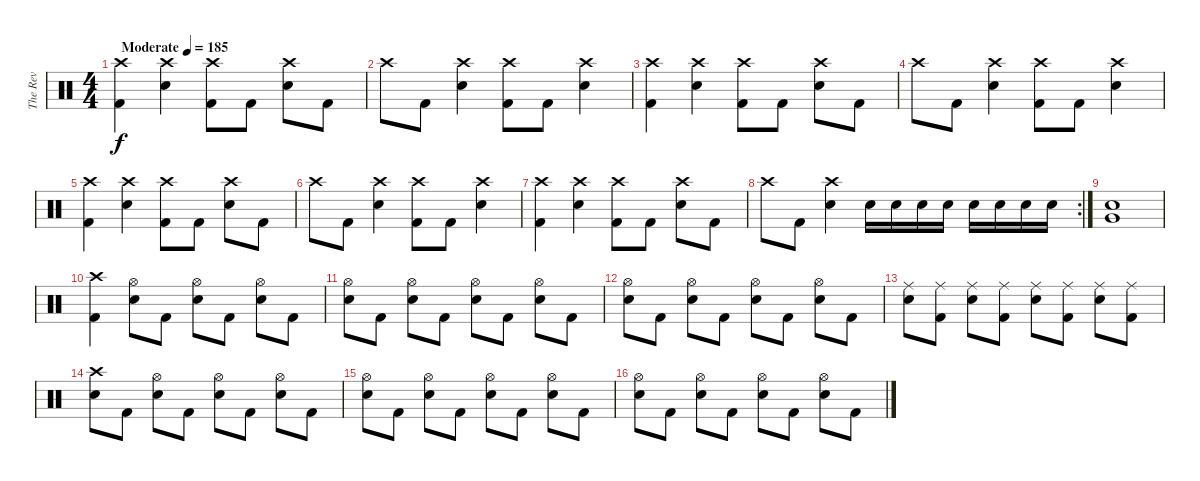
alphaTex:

\track ("The Rev" "The Rev") {instrument percussion}
\staff {score}
\articulation defaults
\ts (4 4)
\tempo (185 "Moderate")
\clef neutral
\ks c
("Crash high (hit)" "Kick (hit) 2").4{dy f} ("Crash high (hit)" "Electric Snare (hit)").4 ("Crash high (hit)" "Kick (hit) 2").8 "Kick (hit) 2".8 ("Crash high (hit)" "Electric Snare (hit)").8 "Kick (hit) 2".8 |
"Crash high (hit)".8 "Kick (hit) 2".8 ("Crash high (hit)" "Electric Snare (hit)").4 ("Crash high (hit)" "Kick (hit) 2").8 "Kick (hit) 2".8 ("Crash high (hit)" "Electric Snare (hit)").4 |
("Crash high (hit)" "Kick (hit) 2").4 ("Crash high (hit)" "Electric Snare (hit)").4 ("Crash high (hit)" "Kick (hit) 2").8 "Kick (hit) 2".8 ("Crash high (hit)" "Electric Snare (hit)").8 "Kick (hit) 2".8 |
"Crash high (hit)".8 "Kick (hit) 2".8 ("Crash high (hit)" "Electric Snare (hit)").4 ("Crash high (hit)" "Kick (hit) 2").8 "Kick (hit) 2".8 ("Crash high (hit)" "Electric Snare (hit)").4 |
("Crash high (hit)" "Kick (hit) 2").4 ("Crash high (hit)" "Electric Snare (hit)").4 ("Crash high (hit)" "Kick (hit) 2").8 "Kick (hit) 2".8 ("Crash high (hit)" "Electric Snare (hit)").8 "Kick (hit) 2".8 |
"Crash high (hit)".8 "Kick (hit) 2".8 ("Crash high (hit)" "Electric Snare (hit)").4 ("Crash high (hit)" "Kick (hit) 2").8 "Kick (hit) 2".8 ("Crash high (hit)" "Electric Snare (hit)").4 |
("Crash high (hit)" "Kick (hit) 2").4 ("Crash high (hit)" "Electric Snare (hit)").4 ("Crash high (hit)" "Kick (hit) 2").8 "Kick (hit) 2".8 ("Crash high (hit)" "Electric Snare (hit)").8 "Kick (hit) 2".8 |
\rc 2 "Crash high (hit)".8 "Kick (hit) 2".8
("Crash high (hit)" "Electric Snare (hit)").4 "Electric Snare (hit)".16 "Electric Snare (hit)".16 "Electric Snare (hit)".16 "Electric Snare (hit)".16 "Electric Snare (hit)".16 "Electric Snare (hit)".16 "Electric Snare (hit)".16 "Electric Snare (hit)".16 |
("Very Low Tom (hit)" "Electric Snare (hit)").1 |
("Crash high (hit)" "Kick (hit) 2").4 ("Hi-Hat (open)" "Electric Snare (hit)").8 "Kick (hit) 2".8 ("Hi-Hat (open)" "Electric Snare (hit)").8 "Kick (hit) 2".8 ("Hi-Hat (open)" "Electric Snare (hit)").8 "Kick (hit) 2".8 |
("Hi-Hat (open)" "Electric Snare (hit)").8 "Kick (hit) 2".8 ("Hi-Hat (open)" "Electric Snare (hit)").8 "Kick (hit) 2".8 ("Hi-Hat (open)" "Electric Snare (hit)").8 "Kick (hit) 2".8 ("Hi-Hat (open)" "Electric Snare (hit)").8 "Kick (hit) 2".8 |
("Hi-Hat (open)" "Electric Snare (hit)").8 "Kick (hit) 2".8 ("Hi-Hat (open)" "Electric Snare (hit)").8 "Kick (hit) 2".8 ("Hi-Hat (open)" "Electric Snare (hit)").8 "Kick (hit) 2".8 ("Hi-Hat (open)" "Electric Snare (hit)").8 "Kick (hit) 2".8 |
("Ride (middle)" "Electric Snare (hit)").8 ("Ride (middle)" "Kick (hit) 2").8 ("Ride (middle)" "Electric Snare (hit)").8 ("Ride (middle)" "Kick (hit) 2").8 ("Ride (middle)" "Electric Snare (hit)").8 ("Ride (middle)" "Kick (hit) 2").8 ("Ride (middle)" "Electric Snare (hit)").8 ("Ride (middle)" "Kick (hit) 2").8 |
("Crash high (hit)" "Electric Snare (hit)").8 "Kick (hit) 2".8 ("Hi-Hat (open)" "Electric Snare (hit)").8 "Kick (hit) 2".8 ("Hi-Hat (open)" "Electric Snare (hit)").8 "Kick (hit) 2".8 ("Hi-Hat (open)" "Electric Snare (hit)").8 "Kick (hit) 2".8 |
("Hi-Hat (open)" "Electric Snare (hit)").8 "Kick (hit) 2".8 ("Hi-Hat (open)" "Electric Snare (hit)").8 "Kick (hit) 2".8 ("Hi-Hat (open)" "Electric Snare (hit)").8 "Kick (hit) 2".8 ("Hi-Hat (open)" "Electric Snare (hit)").8 "Kick (hit) 2".8 |
("Hi-Hat (open)" "Electric Snare (hit)").8 "Kick (hit) 2".8 ("Hi-Hat (open)" "Electric Snare (hit)").8 "Kick (hit) 2".8 ("Hi-Hat (open)" "Electric Snare (hit)").8 "Kick (hit) 2".8 ("Hi-Hat (open)" "Electric Snare (hit)").8 "Kick (hit) 2".8
